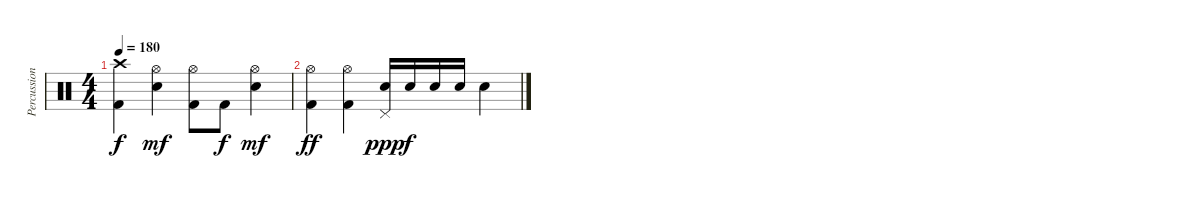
\track ("Percussion" "Percussion") {instrument percussion}
\staff {score}
\articulation defaults
\ts (4 4)
\tempo 180
\clef neutral
\ks c
("Crash high (hit)" "Kick (hit) 2").4{dy f} ("Hi-Hat (open)" "Electric Snare (hit)").4{dy mf} ("Hi-Hat (open)" "Kick (hit) 2").8 "Kick (hit) 2".8{dy f} ("Hi-Hat (open)" "Electric Snare (hit)").4{dy mf} |
("Hi-Hat (open)" "Kick (hit) 2").4{dy ff} ("Hi-Hat (open)" "Kick (hit) 2").4 ("Pedal Hi-Hat (hit)" "Electric Snare (hit)").16{dy ppp} "Electric Snare (hit)".16{dy f} "Electric Snare (hit)".16 "Electric Snare (hit)".16 "Electric Snare (hit)".4
